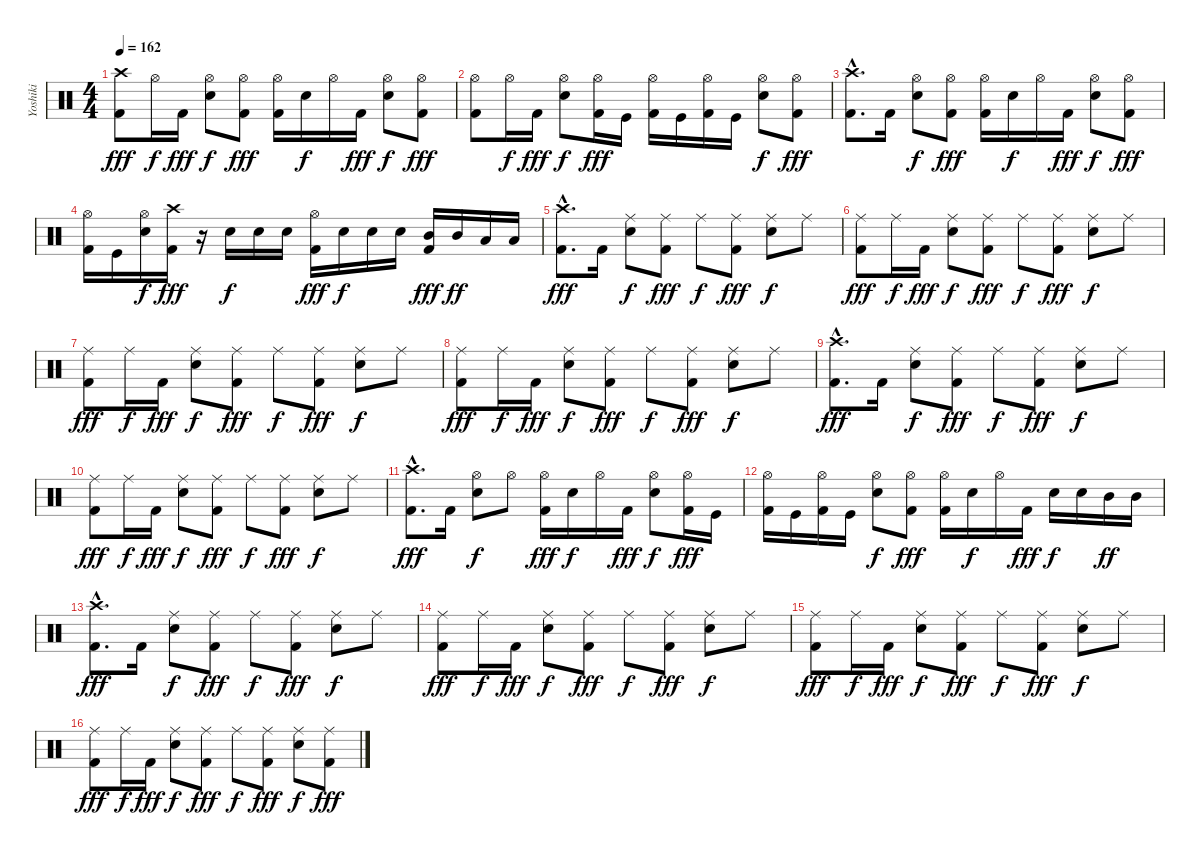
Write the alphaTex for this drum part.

\track ("Yoshiki" "Yoshiki") {instrument percussion}
\staff {score}
\articulation defaults
\ts (4 4)
\tempo 162
\clef neutral
\ks c
("Crash high (hit)" "Kick (hit) 2").8{dy fff} "Hi-Hat (open)".16{dy f} "Kick (hit) 2".16{dy fff} ("Hi-Hat (open)" "Electric Snare (hit)").8{dy f} ("Hi-Hat (open)" "Kick (hit) 2").8{dy fff} ("Hi-Hat (open)" "Kick (hit) 2").16 "Electric Snare (hit)".16{dy f} "Hi-Hat (open)".16 "Kick (hit) 2".16{dy fff} ("Hi-Hat (open)" "Electric Snare (hit)").8{dy f} ("Hi-Hat (open)" "Kick (hit) 2").8{dy fff} |
("Hi-Hat (open)" "Kick (hit) 2").8 "Hi-Hat (open)".16{dy f} "Kick (hit) 2".16{dy fff} ("Hi-Hat (open)" "Electric Snare (hit)").8{dy f} ("Hi-Hat (open)" "Kick (hit) 2").16{dy fff} "Kick (hit)".16 ("Hi-Hat (open)" "Kick (hit) 2").16 "Kick (hit)".16 ("Hi-Hat (open)" "Kick (hit) 2").16 "Kick (hit)".16 ("Hi-Hat (open)" "Electric Snare (hit)").8{dy f} ("Hi-Hat (open)" "Kick (hit) 2").8{dy fff} |
("Crash high (hit)"{hac} "Kick (hit) 2"{hac}).8{d} "Kick (hit) 2".16 ("Hi-Hat (open)" "Electric Snare (hit)").8{dy f} ("Hi-Hat (open)" "Kick (hit) 2").8{dy fff} ("Hi-Hat (open)" "Kick (hit) 2").16 "Electric Snare (hit)".16{dy f} "Hi-Hat (open)".16 "Kick (hit) 2".16{dy fff} ("Hi-Hat (open)" "Electric Snare (hit)").8{dy f} ("Hi-Hat (open)" "Kick (hit) 2").8{dy fff} |
("Hi-Hat (open)" "Kick (hit) 2").16 "Kick (hit)".16 ("Hi-Hat (open)" "Electric Snare (hit)").16{dy f} ("Crash high (hit)" "Kick (hit) 2").16{dy fff} r.16 "Electric Snare (hit)".16{dy f} "Electric Snare (hit)".16 "Electric Snare (hit)".16 ("Hi-Hat (open)" "Kick (hit) 2").16{dy fff} "Electric Snare (hit)".16{dy f} "Electric Snare (hit)".16 "Electric Snare (hit)".16 ("Mid Tom (hit)" "Kick (hit) 2").16{dy fff} "Mid Tom (hit)".16{dy ff} "Low Tom (hit)".16 "Low Tom (hit)".16 |
("Crash high (hit)"{hac} "Kick (hit) 2"{hac}).8{d dy fff} "Kick (hit) 2".16 ("Ride (middle)" "Electric Snare (hit)").8{dy f} ("Ride (middle)" "Kick (hit) 2").8{dy fff} "Ride (middle)".8{dy f} ("Ride (middle)" "Kick (hit) 2").8{dy fff} ("Ride (middle)" "Electric Snare (hit)").8{dy f} "Ride (middle)".8 |
("Ride (middle)" "Kick (hit) 2").8{dy fff} "Ride (middle)".16{dy f} "Kick (hit) 2".16{dy fff} ("Ride (middle)" "Electric Snare (hit)").8{dy f} ("Ride (middle)" "Kick (hit) 2").8{dy fff} "Ride (middle)".8{dy f} ("Ride (middle)" "Kick (hit) 2").8{dy fff} ("Ride (middle)" "Electric Snare (hit)").8{dy f} "Ride (middle)".8 |
("Ride (middle)" "Kick (hit) 2").8{dy fff} "Ride (middle)".16{dy f} "Kick (hit) 2".16{dy fff} ("Ride (middle)" "Electric Snare (hit)").8{dy f} ("Ride (middle)" "Kick (hit) 2").8{dy fff} "Ride (middle)".8{dy f} ("Ride (middle)" "Kick (hit) 2").8{dy fff} ("Ride (middle)" "Electric Snare (hit)").8{dy f} "Ride (middle)".8 |
("Ride (middle)" "Kick (hit) 2").8{dy fff} "Ride (middle)".16{dy f} "Kick (hit) 2".16{dy fff} ("Ride (middle)" "Electric Snare (hit)").8{dy f} ("Ride (middle)" "Kick (hit) 2").8{dy fff} "Ride (middle)".8{dy f} ("Ride (middle)" "Kick (hit) 2").8{dy fff} ("Ride (middle)" "Electric Snare (hit)").8{dy f} "Ride (middle)".8 |
("Crash high (hit)"{hac} "Kick (hit) 2"{hac}).8{d dy fff} "Kick (hit) 2".16 ("Ride (middle)" "Electric Snare (hit)").8{dy f} ("Ride (middle)" "Kick (hit) 2").8{dy fff} "Ride (middle)".8{dy f} ("Ride (middle)" "Kick (hit) 2").8{dy fff} ("Ride (middle)" "Electric Snare (hit)").8{dy f} "Ride (middle)".8 |
("Ride (middle)" "Kick (hit) 2").8{dy fff} "Ride (middle)".16{dy f} "Kick (hit) 2".16{dy fff} ("Ride (middle)" "Electric Snare (hit)").8{dy f} ("Ride (middle)" "Kick (hit) 2").8{dy fff} "Ride (middle)".8{dy f} ("Ride (middle)" "Kick (hit) 2").8{dy fff} ("Ride (middle)" "Electric Snare (hit)").8{dy f} "Ride (middle)".8 |
("Crash high (hit)"{hac} "Kick (hit) 2"{hac}).8{d dy fff} "Kick (hit) 2".16 ("Hi-Hat (open)" "Electric Snare (hit)").8{dy f} "Hi-Hat (open)".8 ("Hi-Hat (open)" "Kick (hit) 2").16{dy fff} "Electric Snare (hit)".16{dy f} "Hi-Hat (open)".16 "Kick (hit) 2".16{dy fff} ("Hi-Hat (open)" "Electric Snare (hit)").8{dy f} ("Hi-Hat (open)" "Kick (hit) 2").16{dy fff} "Kick (hit)".16 |
("Hi-Hat (open)" "Kick (hit) 2").16 "Kick (hit)".16 ("Hi-Hat (open)" "Kick (hit) 2").16 "Kick (hit)".16 ("Hi-Hat (open)" "Electric Snare (hit)").8{dy f} ("Hi-Hat (open)" "Kick (hit) 2").8{dy fff} ("Hi-Hat (open)" "Kick (hit) 2").16 "Electric Snare (hit)".16{dy f} "Hi-Hat (open)".16 "Kick (hit) 2".16{dy fff} "Electric Snare (hit)".16{dy f} "Electric Snare (hit)".16 "Mid Tom (hit)".16{dy ff} "Mid Tom (hit)".16 |
("Crash high (hit)"{hac} "Kick (hit) 2"{hac}).8{d dy fff} "Kick (hit) 2".16 ("Ride (middle)" "Electric Snare (hit)").8{dy f} ("Ride (middle)" "Kick (hit) 2").8{dy fff} "Ride (middle)".8{dy f} ("Ride (middle)" "Kick (hit) 2").8{dy fff} ("Ride (middle)" "Electric Snare (hit)").8{dy f} "Ride (middle)".8 |
("Ride (middle)" "Kick (hit) 2").8{dy fff} "Ride (middle)".16{dy f} "Kick (hit) 2".16{dy fff} ("Ride (middle)" "Electric Snare (hit)").8{dy f} ("Ride (middle)" "Kick (hit) 2").8{dy fff} "Ride (middle)".8{dy f} ("Ride (middle)" "Kick (hit) 2").8{dy fff} ("Ride (middle)" "Electric Snare (hit)").8{dy f} "Ride (middle)".8 |
("Ride (middle)" "Kick (hit) 2").8{dy fff} "Ride (middle)".16{dy f} "Kick (hit) 2".16{dy fff} ("Ride (middle)" "Electric Snare (hit)").8{dy f} ("Ride (middle)" "Kick (hit) 2").8{dy fff} "Ride (middle)".8{dy f} ("Ride (middle)" "Kick (hit) 2").8{dy fff} ("Ride (middle)" "Electric Snare (hit)").8{dy f} "Ride (middle)".8 |
("Ride (middle)" "Kick (hit) 2").8{dy fff} "Ride (middle)".16{dy f} "Kick (hit) 2".16{dy fff} ("Ride (middle)" "Electric Snare (hit)").8{dy f} ("Ride (middle)" "Kick (hit) 2").8{dy fff} "Ride (middle)".8{dy f} ("Ride (middle)" "Kick (hit) 2").8{dy fff} ("Ride (middle)" "Electric Snare (hit)").8{dy f} ("Ride (middle)" "Kick (hit) 2").8{dy fff}
